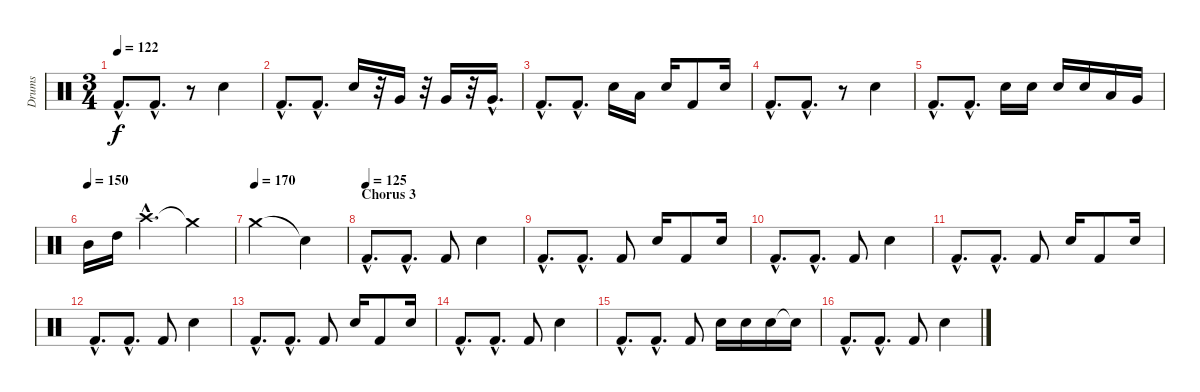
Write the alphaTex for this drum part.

\track ("Drums" "Drums") {instrument percussion}
\staff {score}
\articulation defaults
\ts (3 4)
\tempo 122
\clef neutral
\ks c "Kick (hit) 2"{hac}.8{d dy f} "Kick (hit) 2"{hac}.8{d}
r.8 "Electric Snare (hit)".4 |
"Kick (hit) 2"{hac}.8{d} "Kick (hit) 2"{hac}.8{d} "Electric Snare (hit)".16 r.32 "Very Low Tom (hit)".16 r.32 "Very Low Tom (hit)".16 r.32 "Very Low Tom (hit)"{hac}.16{d} |
"Kick (hit) 2"{hac}.8{d} "Kick (hit) 2"{hac}.8{d} "Electric Snare (hit)".16 "Low Tom (hit)".16 "Electric Snare (hit)".16 "Kick (hit) 2".8 "Electric Snare (hit)".16 |
"Kick (hit) 2"{hac}.8{d} "Kick (hit) 2"{hac}.8{d} r.8 "Electric Snare (hit)".4 |
"Kick (hit) 2"{hac}.8{d} "Kick (hit) 2"{hac}.8{d} "Electric Snare (hit)".16 "Electric Snare (hit)".16 "Electric Snare (hit)".16 "Electric Snare (hit)".16 "Low Tom (hit)".16 "Very Low Tom (hit)".16 |
\tempo (150)
"Mid Tom (hit)".16 "High Tom (hit)".16 "Crash high (hit)"{hac}.4{d} "Crash medium (hit)"{t}.4 |
\tempo (170)
"Crash medium (hit)".2 "Snare (hit)"{t}.4 |
\section ("" "Chorus 3")
\tempo (125)
"Kick (hit) 2"{hac}.8{d} "Kick (hit) 2"{hac}.8{d} "Kick (hit) 2".8 "Electric Snare (hit)".4 |
"Kick (hit) 2"{hac}.8{d} "Kick (hit) 2"{hac}.8{d} "Kick (hit) 2".8 "Electric Snare (hit)".16 "Kick (hit) 2".8 "Electric Snare (hit)".16 |
"Kick (hit) 2"{hac}.8{d} "Kick (hit) 2"{hac}.8{d} "Kick (hit) 2".8 "Electric Snare (hit)".4 |
"Kick (hit) 2"{hac}.8{d} "Kick (hit) 2"{hac}.8{d} "Kick (hit) 2".8 "Electric Snare (hit)".16 "Kick (hit) 2".8 "Electric Snare (hit)".16 |
"Kick (hit) 2"{hac}.8{d} "Kick (hit) 2"{hac}.8{d} "Kick (hit) 2".8 "Electric Snare (hit)".4 |
"Kick (hit) 2"{hac}.8{d} "Kick (hit) 2"{hac}.8{d} "Kick (hit) 2".8 "Electric Snare (hit)".16 "Kick (hit) 2".8 "Electric Snare (hit)".16 |
"Kick (hit) 2"{hac}.8{d} "Kick (hit) 2"{hac}.8{d} "Kick (hit) 2".8 "Electric Snare (hit)".4 |
"Kick (hit) 2"{hac}.8{d} "Kick (hit) 2"{hac}.8{d} "Kick (hit) 2".8 "Electric Snare (hit)".16 "Electric Snare (hit)".16 "Electric Snare (hit)".16 "Snare (hit)"{t}.16 |
"Kick (hit) 2"{hac}.8{d} "Kick (hit) 2"{hac}.8{d} "Kick (hit) 2".8 "Electric Snare (hit)".4
